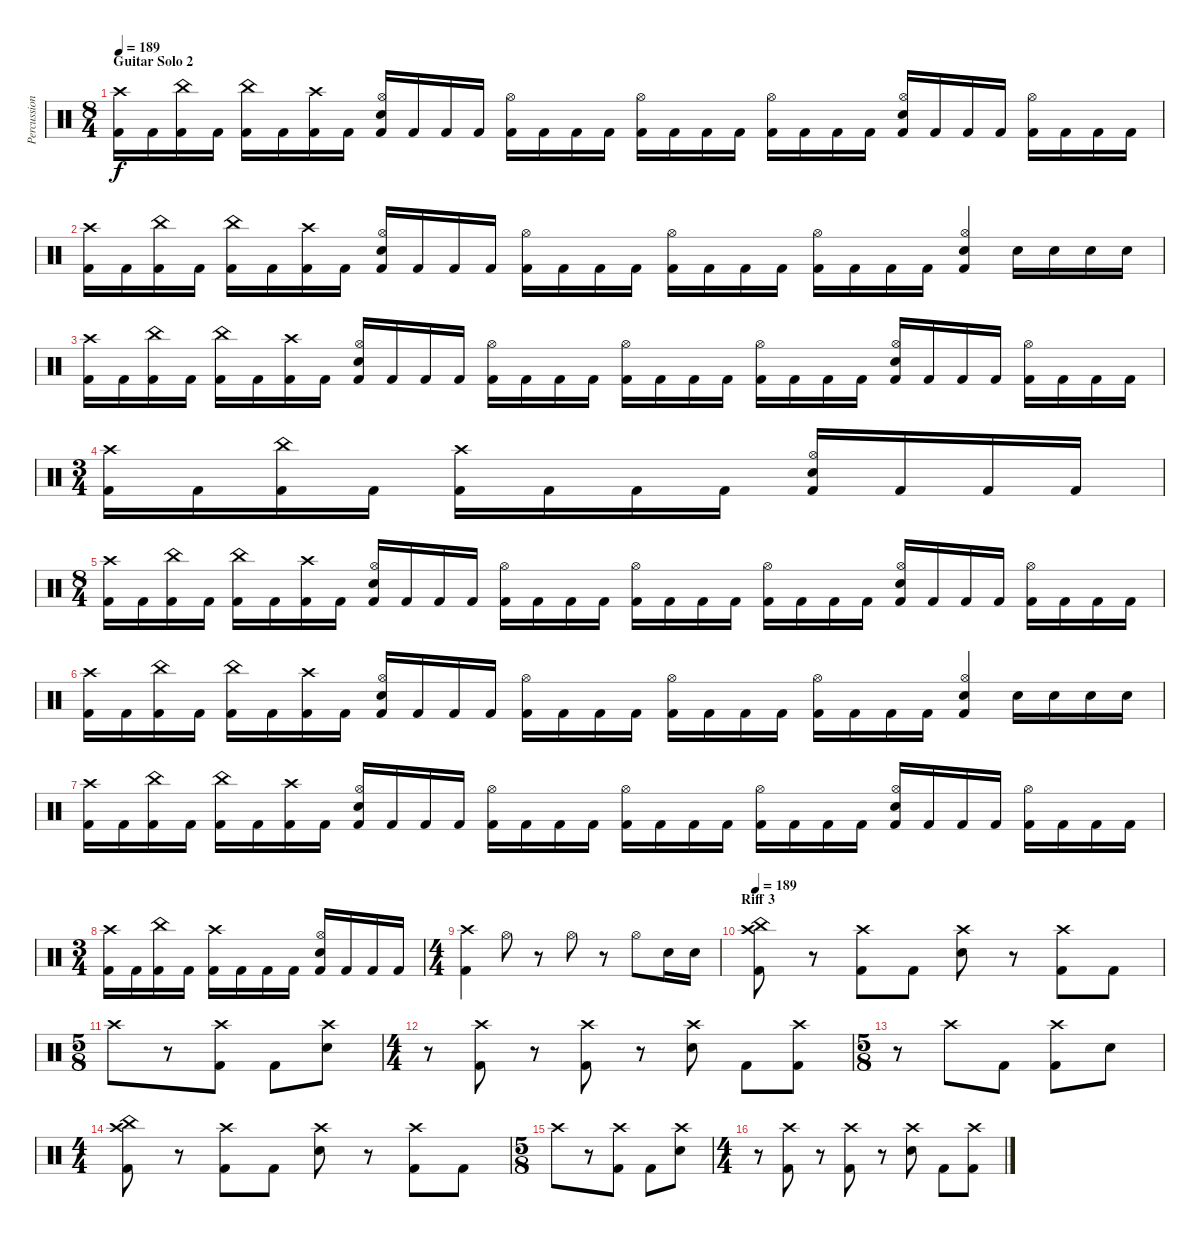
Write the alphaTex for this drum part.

\track ("Percussion" "Percussion") {instrument percussion}
\staff {score}
\articulation defaults
\ts (8 4)
\section ("" "Guitar Solo 2")
\tempo 189
\clef neutral
\ks c
("Crash high (hit)" "Kick (hit) 2").16{dy f} "Kick (hit) 2".16 ("China (hit)" "Kick (hit) 2").16 "Kick (hit) 2".16 ("China (hit)" "Kick (hit) 2").16 "Kick (hit) 2".16 ("Crash high (hit)" "Kick (hit) 2").16 "Kick (hit) 2".16 ("Hi-Hat (open)" "Electric Snare (hit)" "Kick (hit) 2").16 "Kick (hit) 2".16 "Kick (hit) 2".16 "Kick (hit) 2".16 ("Hi-Hat (open)" "Kick (hit) 2").16 "Kick (hit) 2".16 "Kick (hit) 2".16 "Kick (hit) 2".16 ("Hi-Hat (open)" "Kick (hit) 2").16 "Kick (hit) 2".16 "Kick (hit) 2".16 "Kick (hit) 2".16 ("Hi-Hat (open)" "Kick (hit) 2").16 "Kick (hit) 2".16 "Kick (hit) 2".16 "Kick (hit) 2".16 ("Hi-Hat (open)" "Electric Snare (hit)" "Kick (hit) 2").16 "Kick (hit) 2".16 "Kick (hit) 2".16 "Kick (hit) 2".16 ("Hi-Hat (open)" "Kick (hit) 2").16 "Kick (hit) 2".16 "Kick (hit) 2".16 "Kick (hit) 2".16 |
("Crash high (hit)" "Kick (hit) 2").16 "Kick (hit) 2".16 ("China (hit)" "Kick (hit) 2").16 "Kick (hit) 2".16 ("China (hit)" "Kick (hit) 2").16 "Kick (hit) 2".16 ("Crash high (hit)" "Kick (hit) 2").16 "Kick (hit) 2".16 ("Hi-Hat (open)" "Electric Snare (hit)" "Kick (hit) 2").16 "Kick (hit) 2".16 "Kick (hit) 2".16 "Kick (hit) 2".16 ("Hi-Hat (open)" "Kick (hit) 2").16 "Kick (hit) 2".16 "Kick (hit) 2".16 "Kick (hit) 2".16 ("Hi-Hat (open)" "Kick (hit) 2").16 "Kick (hit) 2".16 "Kick (hit) 2".16 "Kick (hit) 2".16 ("Hi-Hat (open)" "Kick (hit) 2").16 "Kick (hit) 2".16 "Kick (hit) 2".16 "Kick (hit) 2".16 ("Hi-Hat (open)" "Electric Snare (hit)" "Kick (hit) 2").4 "Electric Snare (hit)".16 "Electric Snare (hit)".16 "Electric Snare (hit)".16 "Electric Snare (hit)".16 |
("Crash high (hit)" "Kick (hit) 2").16 "Kick (hit) 2".16 ("China (hit)" "Kick (hit) 2").16 "Kick (hit) 2".16 ("China (hit)" "Kick (hit) 2").16 "Kick (hit) 2".16 ("Crash high (hit)" "Kick (hit) 2").16 "Kick (hit) 2".16 ("Hi-Hat (open)" "Electric Snare (hit)" "Kick (hit) 2").16 "Kick (hit) 2".16 "Kick (hit) 2".16 "Kick (hit) 2".16 ("Hi-Hat (open)" "Kick (hit) 2").16 "Kick (hit) 2".16 "Kick (hit) 2".16 "Kick (hit) 2".16 ("Hi-Hat (open)" "Kick (hit) 2").16 "Kick (hit) 2".16 "Kick (hit) 2".16 "Kick (hit) 2".16 ("Hi-Hat (open)" "Kick (hit) 2").16 "Kick (hit) 2".16 "Kick (hit) 2".16 "Kick (hit) 2".16 ("Hi-Hat (open)" "Electric Snare (hit)" "Kick (hit) 2").16 "Kick (hit) 2".16 "Kick (hit) 2".16 "Kick (hit) 2".16 ("Hi-Hat (open)" "Kick (hit) 2").16 "Kick (hit) 2".16 "Kick (hit) 2".16 "Kick (hit) 2".16 |
\ts (3 4)
("Crash high (hit)" "Kick (hit) 2").16 "Kick (hit) 2".16 ("China (hit)" "Kick (hit) 2").16 "Kick (hit) 2".16 ("Crash high (hit)" "Kick (hit) 2").16 "Kick (hit) 2".16 "Kick (hit) 2".16 "Kick (hit) 2".16 ("Hi-Hat (open)" "Electric Snare (hit)" "Kick (hit) 2").16 "Kick (hit) 2".16 "Kick (hit) 2".16 "Kick (hit) 2".16 |
\ts (8 4)
("Crash high (hit)" "Kick (hit) 2").16 "Kick (hit) 2".16 ("China (hit)" "Kick (hit) 2").16 "Kick (hit) 2".16 ("China (hit)" "Kick (hit) 2").16 "Kick (hit) 2".16 ("Crash high (hit)" "Kick (hit) 2").16 "Kick (hit) 2".16 ("Hi-Hat (open)" "Electric Snare (hit)" "Kick (hit) 2").16 "Kick (hit) 2".16 "Kick (hit) 2".16 "Kick (hit) 2".16 ("Hi-Hat (open)" "Kick (hit) 2").16 "Kick (hit) 2".16 "Kick (hit) 2".16 "Kick (hit) 2".16 ("Hi-Hat (open)" "Kick (hit) 2").16 "Kick (hit) 2".16 "Kick (hit) 2".16 "Kick (hit) 2".16 ("Hi-Hat (open)" "Kick (hit) 2").16 "Kick (hit) 2".16 "Kick (hit) 2".16 "Kick (hit) 2".16 ("Hi-Hat (open)" "Electric Snare (hit)" "Kick (hit) 2").16 "Kick (hit) 2".16 "Kick (hit) 2".16 "Kick (hit) 2".16 ("Hi-Hat (open)" "Kick (hit) 2").16 "Kick (hit) 2".16 "Kick (hit) 2".16 "Kick (hit) 2".16 |
("Crash high (hit)" "Kick (hit) 2").16 "Kick (hit) 2".16 ("China (hit)" "Kick (hit) 2").16 "Kick (hit) 2".16 ("China (hit)" "Kick (hit) 2").16 "Kick (hit) 2".16 ("Crash high (hit)" "Kick (hit) 2").16 "Kick (hit) 2".16 ("Hi-Hat (open)" "Electric Snare (hit)" "Kick (hit) 2").16 "Kick (hit) 2".16 "Kick (hit) 2".16 "Kick (hit) 2".16 ("Hi-Hat (open)" "Kick (hit) 2").16 "Kick (hit) 2".16 "Kick (hit) 2".16 "Kick (hit) 2".16 ("Hi-Hat (open)" "Kick (hit) 2").16 "Kick (hit) 2".16 "Kick (hit) 2".16 "Kick (hit) 2".16 ("Hi-Hat (open)" "Kick (hit) 2").16 "Kick (hit) 2".16 "Kick (hit) 2".16 "Kick (hit) 2".16 ("Hi-Hat (open)" "Electric Snare (hit)" "Kick (hit) 2").4 "Electric Snare (hit)".16 "Electric Snare (hit)".16 "Electric Snare (hit)".16 "Electric Snare (hit)".16 |
("Crash high (hit)" "Kick (hit) 2").16 "Kick (hit) 2".16 ("China (hit)" "Kick (hit) 2").16 "Kick (hit) 2".16 ("China (hit)" "Kick (hit) 2").16 "Kick (hit) 2".16 ("Crash high (hit)" "Kick (hit) 2").16 "Kick (hit) 2".16 ("Hi-Hat (open)" "Electric Snare (hit)" "Kick (hit) 2").16 "Kick (hit) 2".16 "Kick (hit) 2".16 "Kick (hit) 2".16 ("Hi-Hat (open)" "Kick (hit) 2").16 "Kick (hit) 2".16 "Kick (hit) 2".16 "Kick (hit) 2".16 ("Hi-Hat (open)" "Kick (hit) 2").16 "Kick (hit) 2".16 "Kick (hit) 2".16 "Kick (hit) 2".16 ("Hi-Hat (open)" "Kick (hit) 2").16 "Kick (hit) 2".16 "Kick (hit) 2".16 "Kick (hit) 2".16 ("Hi-Hat (open)" "Electric Snare (hit)" "Kick (hit) 2").16 "Kick (hit) 2".16 "Kick (hit) 2".16 "Kick (hit) 2".16 ("Hi-Hat (open)" "Kick (hit) 2").16 "Kick (hit) 2".16 "Kick (hit) 2".16 "Kick (hit) 2".16 |
\ts (3 4)
("Crash high (hit)" "Kick (hit) 2").16 "Kick (hit) 2".16 ("China (hit)" "Kick (hit) 2").16 "Kick (hit) 2".16 ("Crash high (hit)" "Kick (hit) 2").16 "Kick (hit) 2".16 "Kick (hit) 2".16 "Kick (hit) 2".16 ("Hi-Hat (open)" "Electric Snare (hit)" "Kick (hit) 2").16 "Kick (hit) 2".16 "Kick (hit) 2".16 "Kick (hit) 2".16 |
\ts (4 4)
("Crash high (hit)" "Kick (hit) 2").4 "Hi-Hat (open)".8 r.8 "Hi-Hat (open)".8 r.8 "Hi-Hat (open)".8 "Electric Snare (hit)".16 "Electric Snare (hit)".16 |
\section ("" "Riff 3")
\tempo 189
("China (hit)" "Crash high (hit)" "Kick (hit) 2").8 r.8 ("Crash high (hit)" "Kick (hit) 2").8 "Kick (hit) 2".8 ("Crash high (hit)" "Electric Snare (hit)").8 r.8 ("Crash high (hit)" "Kick (hit) 2").8 "Kick (hit) 2".8 |
\ts (5 8)
"Crash high (hit)".8 r.8 ("Crash high (hit)" "Kick (hit) 2").8 "Kick (hit) 2".8 ("Crash high (hit)" "Electric Snare (hit)").8 |
\ts (4 4)
r.8 ("Crash high (hit)" "Kick (hit) 2").8 r.8 ("Crash high (hit)" "Kick (hit) 2").8 r.8 ("Crash high (hit)" "Electric Snare (hit)").8 "Kick (hit) 2".8 ("Crash high (hit)" "Kick (hit) 2").8 |
\ts (5 8)
r.8 "Crash high (hit)".8 "Kick (hit) 2".8 ("Crash high (hit)" "Kick (hit) 2").8 "Electric Snare (hit)".8 |
\ts (4 4)
("China (hit)" "Crash high (hit)" "Kick (hit) 2").8 r.8 ("Crash high (hit)" "Kick (hit) 2").8 "Kick (hit) 2".8 ("Crash high (hit)" "Electric Snare (hit)").8 r.8 ("Crash high (hit)" "Kick (hit) 2").8 "Kick (hit) 2".8 |
\ts (5 8)
"Crash high (hit)".8 r.8 ("Crash high (hit)" "Kick (hit) 2").8 "Kick (hit) 2".8 ("Crash high (hit)" "Electric Snare (hit)").8 |
\ts (4 4)
r.8 ("Crash high (hit)" "Kick (hit) 2").8 r.8 ("Crash high (hit)" "Kick (hit) 2").8 r.8 ("Crash high (hit)" "Electric Snare (hit)").8 "Kick (hit) 2".8 ("Crash high (hit)" "Kick (hit) 2").8
